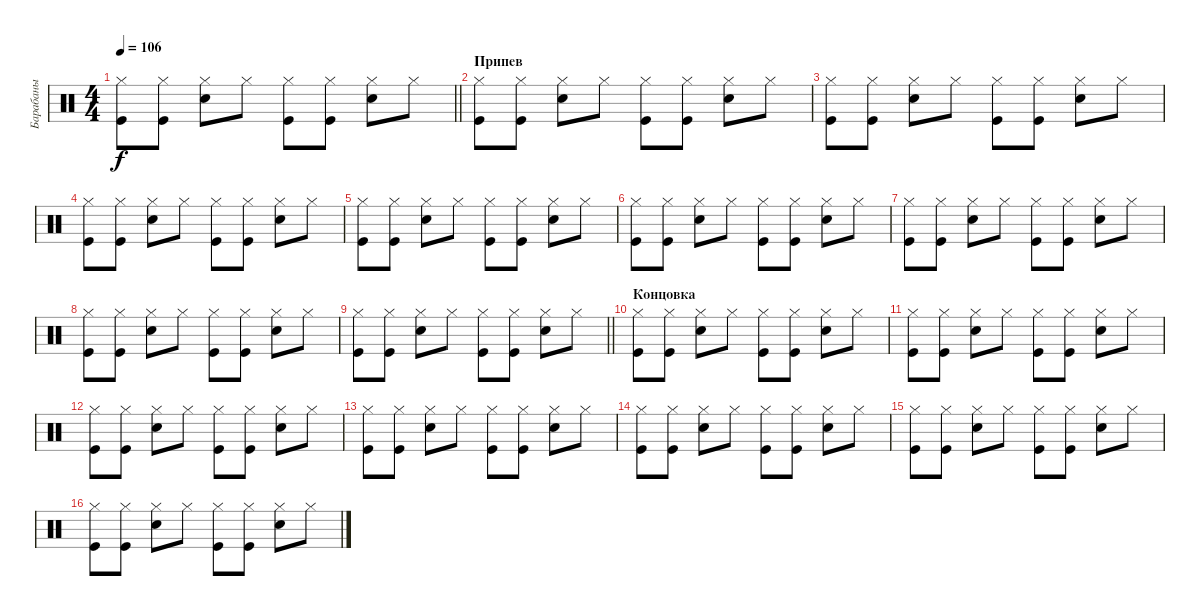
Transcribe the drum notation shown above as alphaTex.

\track ("Барабаны" "Барабаны") {instrument percussion}
\staff {score}
\articulation defaults
\ts (4 4)
\tempo 106
\clef neutral
\barLineRight lightlight
\ks c
("Kick (hit)" "Hi-Hat (closed)").8{dy f} ("Kick (hit)" "Hi-Hat (closed)").8 ("Snare (hit) 2" "Hi-Hat (closed)").8 "Hi-Hat (closed)".8 ("Kick (hit)" "Hi-Hat (closed)").8 ("Kick (hit)" "Hi-Hat (closed)").8 ("Snare (hit) 2" "Hi-Hat (closed)").8 "Hi-Hat (closed)".8 |
\section ("" "Припев")
("Kick (hit)" "Hi-Hat (closed)").8 ("Kick (hit)" "Hi-Hat (closed)").8 ("Snare (hit) 2" "Hi-Hat (closed)").8 "Hi-Hat (closed)".8 ("Kick (hit)" "Hi-Hat (closed)").8 ("Kick (hit)" "Hi-Hat (closed)").8 ("Snare (hit) 2" "Hi-Hat (closed)").8 "Hi-Hat (closed)".8 |
("Kick (hit)" "Hi-Hat (closed)").8 ("Kick (hit)" "Hi-Hat (closed)").8 ("Snare (hit) 2" "Hi-Hat (closed)").8 "Hi-Hat (closed)".8 ("Kick (hit)" "Hi-Hat (closed)").8 ("Kick (hit)" "Hi-Hat (closed)").8 ("Snare (hit) 2" "Hi-Hat (closed)").8 "Hi-Hat (closed)".8 |
("Kick (hit)" "Hi-Hat (closed)").8 ("Kick (hit)" "Hi-Hat (closed)").8 ("Snare (hit) 2" "Hi-Hat (closed)").8 "Hi-Hat (closed)".8 ("Kick (hit)" "Hi-Hat (closed)").8 ("Kick (hit)" "Hi-Hat (closed)").8 ("Snare (hit) 2" "Hi-Hat (closed)").8 "Hi-Hat (closed)".8 |
("Kick (hit)" "Hi-Hat (closed)").8 ("Kick (hit)" "Hi-Hat (closed)").8 ("Snare (hit) 2" "Hi-Hat (closed)").8 "Hi-Hat (closed)".8 ("Kick (hit)" "Hi-Hat (closed)").8 ("Kick (hit)" "Hi-Hat (closed)").8 ("Snare (hit) 2" "Hi-Hat (closed)").8 "Hi-Hat (closed)".8 |
("Kick (hit)" "Hi-Hat (closed)").8 ("Kick (hit)" "Hi-Hat (closed)").8 ("Snare (hit) 2" "Hi-Hat (closed)").8 "Hi-Hat (closed)".8 ("Kick (hit)" "Hi-Hat (closed)").8 ("Kick (hit)" "Hi-Hat (closed)").8 ("Snare (hit) 2" "Hi-Hat (closed)").8 "Hi-Hat (closed)".8 |
("Kick (hit)" "Hi-Hat (closed)").8 ("Kick (hit)" "Hi-Hat (closed)").8 ("Snare (hit) 2" "Hi-Hat (closed)").8 "Hi-Hat (closed)".8 ("Kick (hit)" "Hi-Hat (closed)").8 ("Kick (hit)" "Hi-Hat (closed)").8 ("Snare (hit) 2" "Hi-Hat (closed)").8 "Hi-Hat (closed)".8 |
("Kick (hit)" "Hi-Hat (closed)").8 ("Kick (hit)" "Hi-Hat (closed)").8 ("Snare (hit) 2" "Hi-Hat (closed)").8 "Hi-Hat (closed)".8 ("Kick (hit)" "Hi-Hat (closed)").8 ("Kick (hit)" "Hi-Hat (closed)").8 ("Snare (hit) 2" "Hi-Hat (closed)").8 "Hi-Hat (closed)".8 |
\barLineRight lightlight
("Kick (hit)" "Hi-Hat (closed)").8 ("Kick (hit)" "Hi-Hat (closed)").8 ("Snare (hit) 2" "Hi-Hat (closed)").8 "Hi-Hat (closed)".8 ("Kick (hit)" "Hi-Hat (closed)").8 ("Kick (hit)" "Hi-Hat (closed)").8 ("Snare (hit) 2" "Hi-Hat (closed)").8 "Hi-Hat (closed)".8 |
\section ("" "Концовка")
("Kick (hit)" "Hi-Hat (closed)").8 ("Kick (hit)" "Hi-Hat (closed)").8 ("Snare (hit) 2" "Hi-Hat (closed)").8 "Hi-Hat (closed)".8 ("Kick (hit)" "Hi-Hat (closed)").8 ("Kick (hit)" "Hi-Hat (closed)").8 ("Snare (hit) 2" "Hi-Hat (closed)").8 "Hi-Hat (closed)".8 |
("Kick (hit)" "Hi-Hat (closed)").8 ("Kick (hit)" "Hi-Hat (closed)").8 ("Snare (hit) 2" "Hi-Hat (closed)").8 "Hi-Hat (closed)".8 ("Kick (hit)" "Hi-Hat (closed)").8 ("Kick (hit)" "Hi-Hat (closed)").8 ("Snare (hit) 2" "Hi-Hat (closed)").8 "Hi-Hat (closed)".8 |
("Kick (hit)" "Hi-Hat (closed)").8 ("Kick (hit)" "Hi-Hat (closed)").8 ("Snare (hit) 2" "Hi-Hat (closed)").8 "Hi-Hat (closed)".8 ("Kick (hit)" "Hi-Hat (closed)").8 ("Kick (hit)" "Hi-Hat (closed)").8 ("Snare (hit) 2" "Hi-Hat (closed)").8 "Hi-Hat (closed)".8 |
("Kick (hit)" "Hi-Hat (closed)").8 ("Kick (hit)" "Hi-Hat (closed)").8 ("Snare (hit) 2" "Hi-Hat (closed)").8 "Hi-Hat (closed)".8 ("Kick (hit)" "Hi-Hat (closed)").8 ("Kick (hit)" "Hi-Hat (closed)").8 ("Snare (hit) 2" "Hi-Hat (closed)").8 "Hi-Hat (closed)".8 |
("Kick (hit)" "Hi-Hat (closed)").8 ("Kick (hit)" "Hi-Hat (closed)").8 ("Snare (hit) 2" "Hi-Hat (closed)").8 "Hi-Hat (closed)".8 ("Kick (hit)" "Hi-Hat (closed)").8 ("Kick (hit)" "Hi-Hat (closed)").8 ("Snare (hit) 2" "Hi-Hat (closed)").8 "Hi-Hat (closed)".8 |
("Kick (hit)" "Hi-Hat (closed)").8 ("Kick (hit)" "Hi-Hat (closed)").8 ("Snare (hit) 2" "Hi-Hat (closed)").8 "Hi-Hat (closed)".8 ("Kick (hit)" "Hi-Hat (closed)").8 ("Kick (hit)" "Hi-Hat (closed)").8 ("Snare (hit) 2" "Hi-Hat (closed)").8 "Hi-Hat (closed)".8 |
("Kick (hit)" "Hi-Hat (closed)").8 ("Kick (hit)" "Hi-Hat (closed)").8 ("Snare (hit) 2" "Hi-Hat (closed)").8 "Hi-Hat (closed)".8 ("Kick (hit)" "Hi-Hat (closed)").8 ("Kick (hit)" "Hi-Hat (closed)").8 ("Snare (hit) 2" "Hi-Hat (closed)").8 "Hi-Hat (closed)".8
